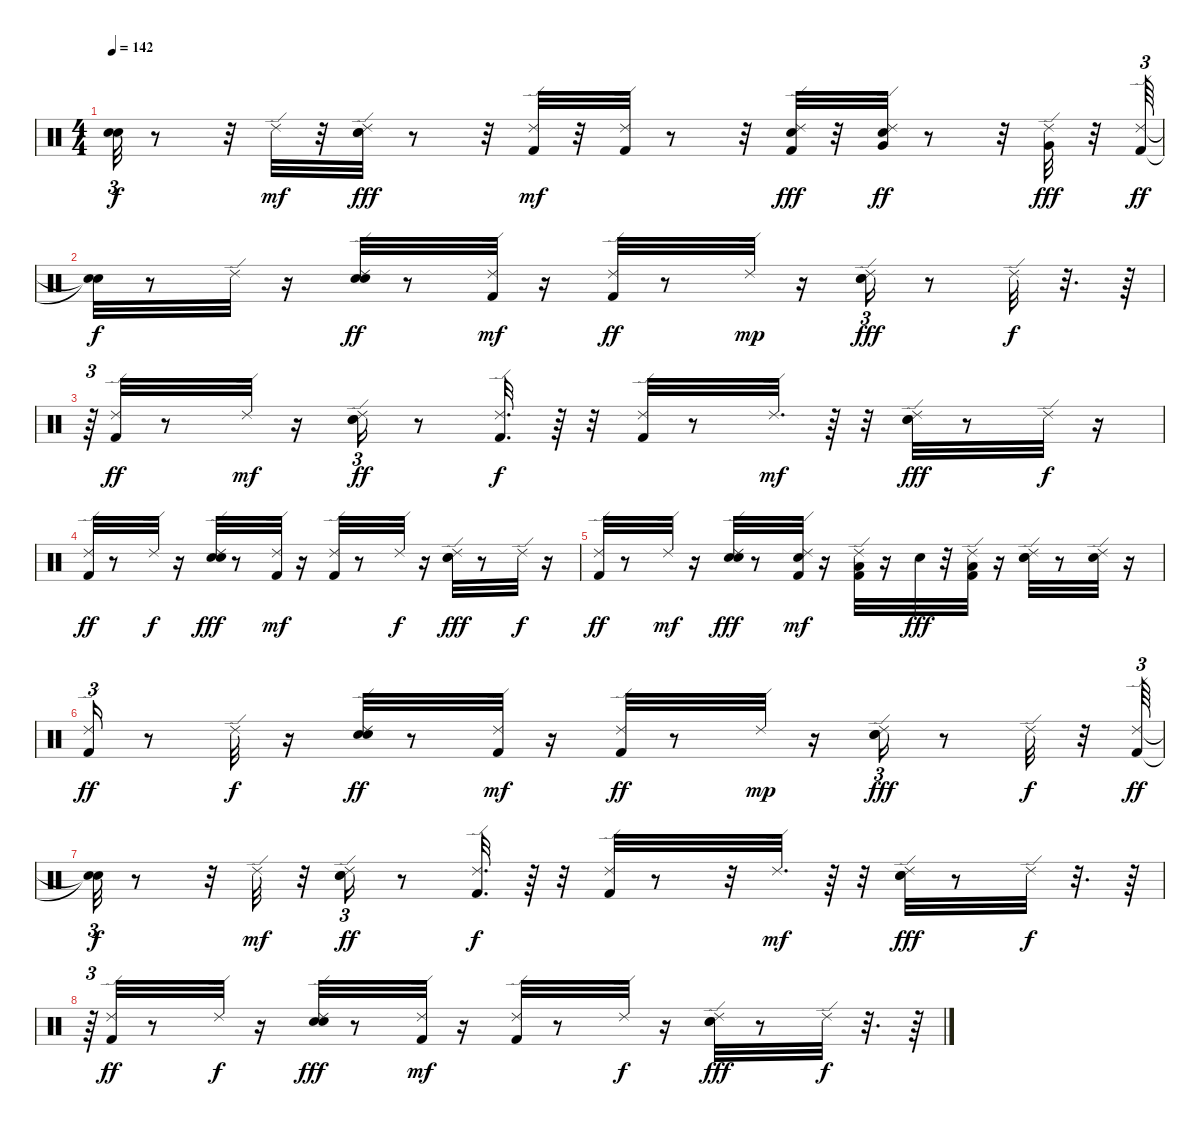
\track "" {instrument percussion}
\staff {score}
\articulation defaults
\ts (4 4)
\tempo 142
\clef neutral
\ks c
("Snare (hit)"{t} "Snare (hit)"{t}).32{tu (3 2) dy f} r.8 r.32 "Ride (edge) 2".32{dy mf} r.32 ("Hand Clap (hit)" "Electric Snare (hit)" "Ride (edge) 2").32{dy fff} r.8 r.32 ("Kick (hit) 2" "Ride (edge) 2").32{dy mf} r.32 ("Kick (hit) 2" "Ride (edge) 2").32 r.8 r.32 ("Electric Snare (hit)" "Ride (edge) 2" "Kick (hit) 2").32{dy fff} r.32 ("Very Low Tom (hit)" "Hand Clap (hit)" "Ride (edge) 2").32{dy ff} r.8 r.32 ("Very Low Tom (hit)" "Ride (edge) 2").32{dy fff} r.32 ("Ride (edge) 2" "Kick (hit) 2").64{tu (3 2) dy ff} |
("Snare (hit)"{t} "Snare (hit)"{t}).32{dy f} r.8 "Ride (edge) 2".32 r.16 ("Hand Clap (hit)" "Electric Snare (hit)" "Ride (edge) 2").32{dy ff} r.8 ("Kick (hit) 2" "Ride (edge) 2").32{dy mf} r.16 ("Kick (hit) 2" "Ride (edge) 2").32{dy ff} r.8 "Ride (edge) 2".32{dy mp} r.16 ("Hand Clap (hit)" "Electric Snare (hit)" "Ride (edge) 2").16{tu (3 2) dy fff} r.8 "Ride (edge) 2".32{dy f} r.32{d} r.64 |
r.64{tu (3 2)} ("Kick (hit) 2" "Ride (edge) 2").32{dy ff} r.8 "Ride (edge) 2".32{dy mf} r.16 ("Hand Clap (hit)" "Electric Snare (hit)" "Ride (edge) 2").16{tu (3 2) dy ff} r.8 ("Kick (hit) 2" "Ride (edge) 2").32{d dy f} r.64 r.32 ("Kick (hit) 2" "Ride (edge) 2").32 r.8 "Ride (edge) 2".32{d dy mf} r.64 r.32 ("Hand Clap (hit)" "Electric Snare (hit)" "Ride (edge) 2").32{dy fff} r.8 "Ride (edge) 2".32{dy f} r.16 |
("Ride (edge) 2" "Kick (hit) 2").32{dy ff} r.8 "Ride (edge) 2".32{dy f} r.16 ("Electric Snare (hit)" "Hand Clap (hit)" "Ride (edge) 2").32{dy fff} r.8 ("Kick (hit) 2" "Ride (edge) 2").32{dy mf} r.16 ("Kick (hit) 2" "Ride (edge) 2").32 r.8 "Ride (edge) 2".32{dy f} r.16 ("Electric Snare (hit)" "Hand Clap (hit)" "Ride (edge) 2").32{dy fff} r.8 "Ride (edge) 2".32{dy f} r.16 |
("Kick (hit) 2" "Ride (edge) 2").32{dy ff} r.8 "Ride (edge) 2".32{dy mf} r.16 ("Hand Clap (hit)" "Electric Snare (hit)" "Ride (edge) 2").32{dy fff} r.8 ("Kick (hit) 2" "Electric Snare (hit)" "Ride (edge) 2").32{dy mf} r.16 ("Low Tom (hit)" "Kick (hit) 2" "Ride (edge) 2").32 r.16 "Electric Snare (hit)".32{dy fff} r.32 ("Low Tom (hit)" "Ride (edge) 2" "Kick (hit) 2").32 r.16 ("Electric Snare (hit)" "Hand Clap (hit)" "Ride (edge) 2").32 r.8 ("Electric Snare (hit)" "Ride (edge) 2").32 r.16 |
("Ride (edge) 2" "Kick (hit) 2").16{tu (3 2) dy ff} r.8 "Ride (edge) 2".32{dy f} r.16 ("Hand Clap (hit)" "Electric Snare (hit)" "Ride (edge) 2").32{dy ff} r.8 ("Kick (hit) 2" "Ride (edge) 2").32{dy mf} r.16 ("Kick (hit) 2" "Ride (edge) 2").32{dy ff} r.8 "Ride (edge) 2".32{dy mp} r.16 ("Hand Clap (hit)" "Electric Snare (hit)" "Ride (edge) 2").16{tu (3 2) dy fff} r.8 "Ride (edge) 2".32{dy f} r.32 ("Kick (hit) 2" "Ride (edge) 2").64{tu (3 2) dy ff} |
("Snare (hit)"{t} "Snare (hit)"{t}).32{tu (3 2) dy f} r.8 r.32 "Ride (edge) 2".32{dy mf} r.32 ("Hand Clap (hit)" "Electric Snare (hit)" "Ride (edge) 2").16{tu (3 2) dy ff} r.8 ("Kick (hit) 2" "Ride (edge) 2").32{d dy f} r.64 r.32 ("Kick (hit) 2" "Ride (edge) 2").32 r.8 r.32 "Ride (edge) 2".32{d dy mf} r.64 r.32 ("Hand Clap (hit)" "Electric Snare (hit)" "Ride (edge) 2").32{dy fff} r.8 "Ride (edge) 2".32{dy f} r.32{d} r.64 |
r.64{tu (3 2)} ("Ride (edge) 2" "Kick (hit) 2").32{dy ff} r.8 "Ride (edge) 2".32{dy f} r.16 ("Electric Snare (hit)" "Hand Clap (hit)" "Ride (edge) 2").32{dy fff} r.8 ("Kick (hit) 2" "Ride (edge) 2").32{dy mf} r.16 ("Kick (hit) 2" "Ride (edge) 2").32 r.8 "Ride (edge) 2".32{dy f} r.16 ("Electric Snare (hit)" "Hand Clap (hit)" "Ride (edge) 2").32{dy fff} r.8 "Ride (edge) 2".32{dy f} r.32{d} r.64
